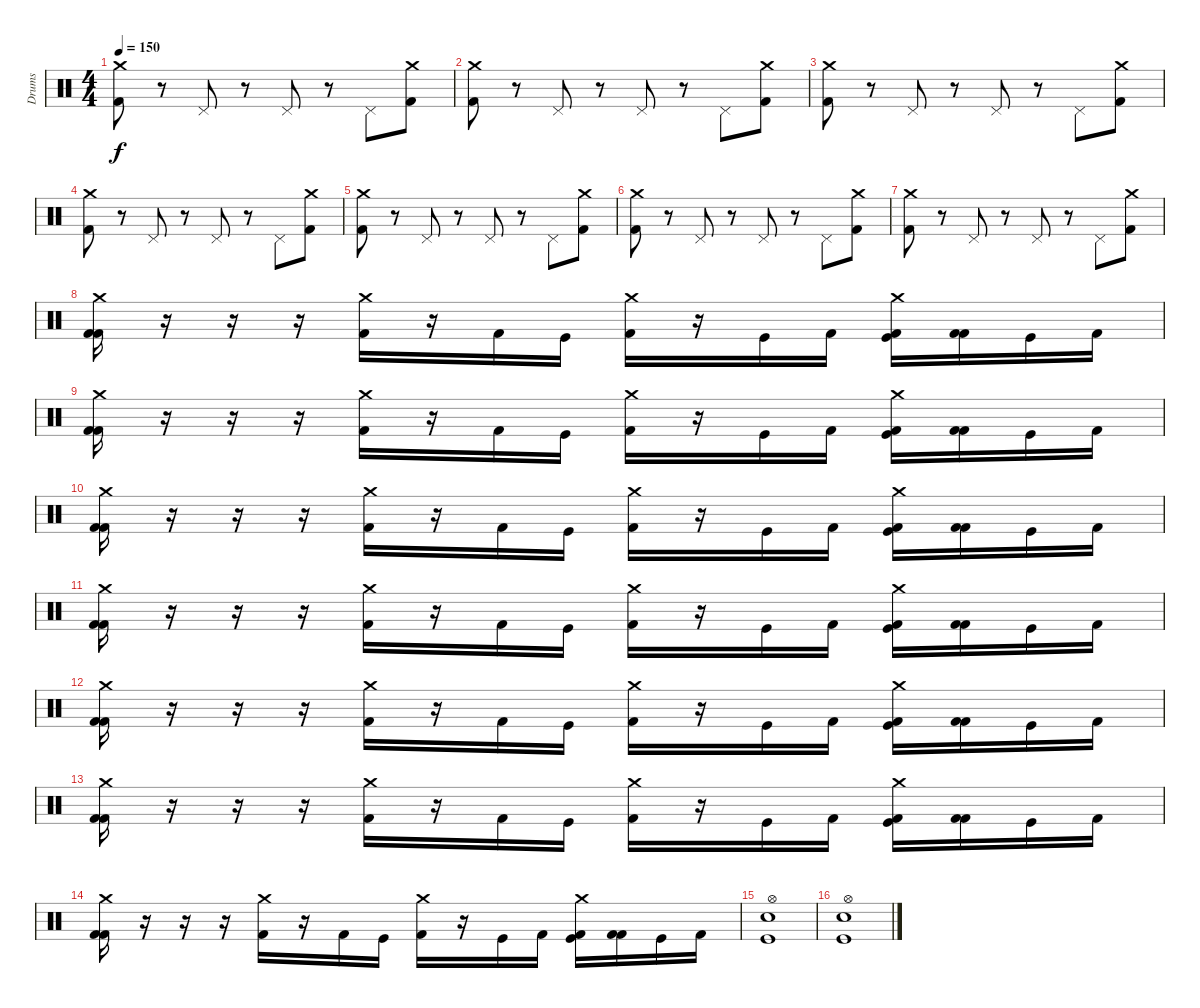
\track ("Drums" "Drums") {instrument percussion}
\staff {score}
\articulation defaults
\ts (4 4)
\tempo 150
\clef neutral
\ks c
("Crash medium (hit)" "Kick (hit) 2").8{dy f} r.8 "Pedal Hi-Hat (hit)".8 r.8 "Pedal Hi-Hat (hit)".8 r.8 "Pedal Hi-Hat (hit)".8 ("Crash medium (hit)" "Kick (hit) 2").8 |
("Crash medium (hit)" "Kick (hit) 2").8 r.8 "Pedal Hi-Hat (hit)".8 r.8 "Pedal Hi-Hat (hit)".8 r.8 "Pedal Hi-Hat (hit)".8 ("Crash medium (hit)" "Kick (hit) 2").8 |
("Crash medium (hit)" "Kick (hit) 2").8 r.8 "Pedal Hi-Hat (hit)".8 r.8 "Pedal Hi-Hat (hit)".8 r.8 "Pedal Hi-Hat (hit)".8 ("Crash medium (hit)" "Kick (hit) 2").8 |
("Crash medium (hit)" "Kick (hit) 2").8 r.8 "Pedal Hi-Hat (hit)".8 r.8 "Pedal Hi-Hat (hit)".8 r.8 "Pedal Hi-Hat (hit)".8 ("Crash medium (hit)" "Kick (hit) 2").8 |
("Crash medium (hit)" "Kick (hit) 2").8 r.8 "Pedal Hi-Hat (hit)".8 r.8 "Pedal Hi-Hat (hit)".8 r.8 "Pedal Hi-Hat (hit)".8 ("Crash medium (hit)" "Kick (hit) 2").8 |
("Crash medium (hit)" "Kick (hit) 2").8 r.8 "Pedal Hi-Hat (hit)".8 r.8 "Pedal Hi-Hat (hit)".8 r.8 "Pedal Hi-Hat (hit)".8 ("Crash medium (hit)" "Kick (hit) 2").8 |
("Crash medium (hit)" "Kick (hit) 2").8 r.8 "Pedal Hi-Hat (hit)".8 r.8 "Pedal Hi-Hat (hit)".8 r.8 "Pedal Hi-Hat (hit)".8 ("Crash medium (hit)" "Kick (hit) 2").8 |
("Kick (hit) 2" "Crash medium (hit)" "Kick (hit) 2").16 r.16 r.16 r.16 ("Kick (hit) 2" "Crash medium (hit)").16 r.16 "Kick (hit) 2".16 "Kick (hit)".16 ("Kick (hit) 2" "Crash medium (hit)").16 r.16 "Kick (hit)".16 "Kick (hit) 2".16 ("Kick (hit) 2" "Crash medium (hit)" "Kick (hit)").16 ("Kick (hit) 2" "Kick (hit) 2").16 "Kick (hit)".16 "Kick (hit) 2".16 |
("Kick (hit) 2" "Crash medium (hit)" "Kick (hit) 2").16 r.16 r.16 r.16 ("Kick (hit) 2" "Crash medium (hit)").16 r.16 "Kick (hit) 2".16 "Kick (hit)".16 ("Kick (hit) 2" "Crash medium (hit)").16 r.16 "Kick (hit)".16 "Kick (hit) 2".16 ("Kick (hit) 2" "Crash medium (hit)" "Kick (hit)").16 ("Kick (hit) 2" "Kick (hit) 2").16 "Kick (hit)".16 "Kick (hit) 2".16 |
("Kick (hit) 2" "Crash medium (hit)" "Kick (hit) 2").16 r.16 r.16 r.16 ("Kick (hit) 2" "Crash medium (hit)").16 r.16 "Kick (hit) 2".16 "Kick (hit)".16 ("Kick (hit) 2" "Crash medium (hit)").16 r.16 "Kick (hit)".16 "Kick (hit) 2".16 ("Kick (hit) 2" "Crash medium (hit)" "Kick (hit)").16 ("Kick (hit) 2" "Kick (hit) 2").16 "Kick (hit)".16 "Kick (hit) 2".16 |
("Kick (hit) 2" "Crash medium (hit)" "Kick (hit) 2").16 r.16 r.16 r.16 ("Kick (hit) 2" "Crash medium (hit)").16 r.16 "Kick (hit) 2".16 "Kick (hit)".16 ("Kick (hit) 2" "Crash medium (hit)").16 r.16 "Kick (hit)".16 "Kick (hit) 2".16 ("Kick (hit) 2" "Crash medium (hit)" "Kick (hit)").16 ("Kick (hit) 2" "Kick (hit) 2").16 "Kick (hit)".16 "Kick (hit) 2".16 |
("Kick (hit) 2" "Crash medium (hit)" "Kick (hit) 2").16 r.16 r.16 r.16 ("Kick (hit) 2" "Crash medium (hit)").16 r.16 "Kick (hit) 2".16 "Kick (hit)".16 ("Kick (hit) 2" "Crash medium (hit)").16 r.16 "Kick (hit)".16 "Kick (hit) 2".16 ("Kick (hit) 2" "Crash medium (hit)" "Kick (hit)").16 ("Kick (hit) 2" "Kick (hit) 2").16 "Kick (hit)".16 "Kick (hit) 2".16 |
("Kick (hit) 2" "Crash medium (hit)" "Kick (hit) 2").16 r.16 r.16 r.16 ("Kick (hit) 2" "Crash medium (hit)").16 r.16 "Kick (hit) 2".16 "Kick (hit)".16 ("Kick (hit) 2" "Crash medium (hit)").16 r.16 "Kick (hit)".16 "Kick (hit) 2".16 ("Kick (hit) 2" "Crash medium (hit)" "Kick (hit)").16 ("Kick (hit) 2" "Kick (hit) 2").16 "Kick (hit)".16 "Kick (hit) 2".16 |
("Kick (hit) 2" "Crash medium (hit)" "Kick (hit) 2").16 r.16 r.16 r.16 ("Kick (hit) 2" "Crash medium (hit)").16 r.16 "Kick (hit) 2".16 "Kick (hit)".16 ("Kick (hit) 2" "Crash medium (hit)").16 r.16 "Kick (hit)".16 "Kick (hit) 2".16 ("Kick (hit) 2" "Crash medium (hit)" "Kick (hit)").16 ("Kick (hit) 2" "Kick (hit) 2").16 "Kick (hit)".16 "Kick (hit) 2".16 |
("Kick (hit)" "Hi-Hat (open)" "Snare (hit) 2").1 |
("Kick (hit)" "Hi-Hat (open)" "Snare (hit) 2").1
